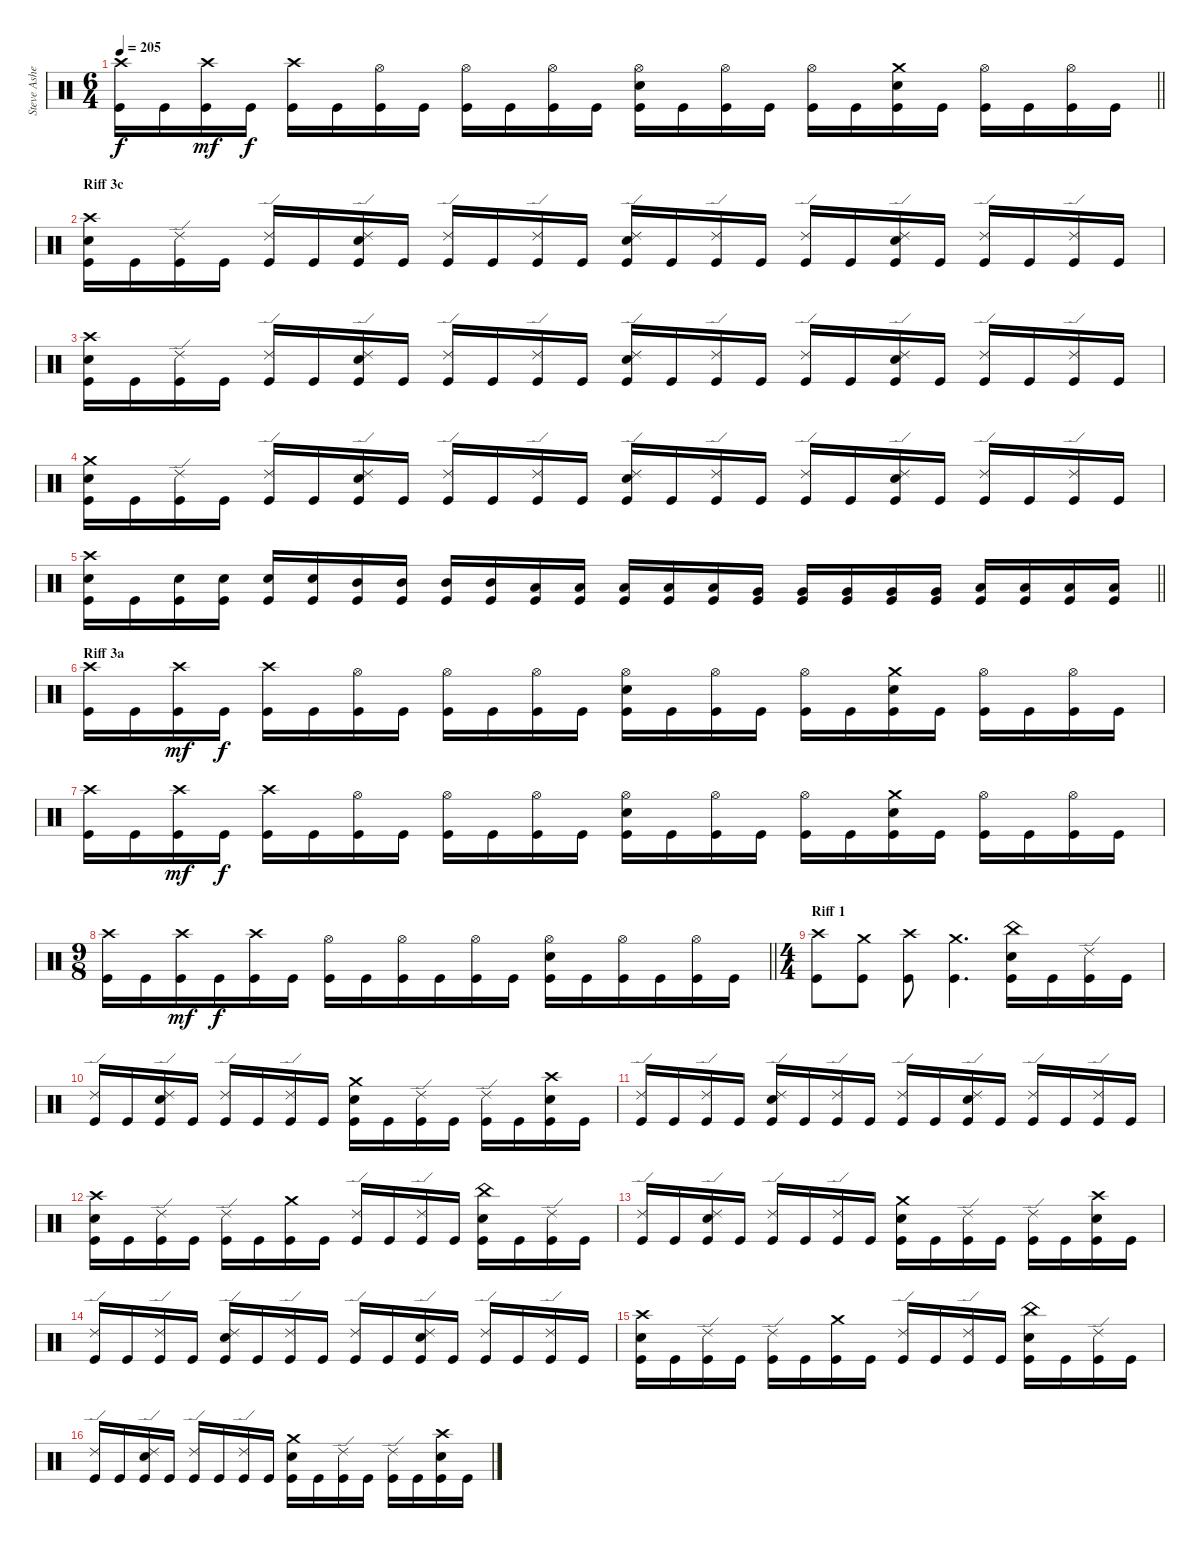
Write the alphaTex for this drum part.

\track ("Steve Asheim" "Steve Ashe") {instrument percussion}
\staff {score}
\articulation defaults
\ts (6 4)
\tempo 205
\clef neutral
\barLineRight lightlight
\ks c
("Crash high (hit)" "Kick (hit)").16{dy f} "Kick (hit)".16 ("Crash high (hit)" "Kick (hit)").16{dy mf} "Kick (hit)".16{dy f} ("Crash high (hit)" "Kick (hit)").16 "Kick (hit)".16 ("Hi-Hat (open)" "Kick (hit)").16 "Kick (hit)".16 ("Hi-Hat (open)" "Kick (hit)").16 "Kick (hit)".16 ("Hi-Hat (open)" "Kick (hit)").16 "Kick (hit)".16 ("Hi-Hat (open)" "Snare (hit) 2" "Kick (hit)").16 "Kick (hit)".16 ("Hi-Hat (open)" "Kick (hit)").16 "Kick (hit)".16 ("Hi-Hat (open)" "Kick (hit)").16 "Kick (hit)".16 ("Crash medium (hit)" "Snare (hit) 2" "Kick (hit)").16 "Kick (hit)".16 ("Hi-Hat (open)" "Kick (hit)").16 "Kick (hit)".16 ("Hi-Hat (open)" "Kick (hit)").16 "Kick (hit)".16 |
\section ("" "Riff 3c")
("Crash high (hit)" "Snare (hit) 2" "Kick (hit)").16 "Kick (hit)".16 ("Ride (edge) 2" "Kick (hit)").16 "Kick (hit)".16 ("Ride (edge) 2" "Kick (hit)").16 "Kick (hit)".16 ("Ride (edge) 2" "Snare (hit) 2" "Kick (hit)").16 "Kick (hit)".16 ("Ride (edge) 2" "Kick (hit)").16 "Kick (hit)".16 ("Ride (edge) 2" "Kick (hit)").16 "Kick (hit)".16 ("Ride (edge) 2" "Snare (hit) 2" "Kick (hit)").16 "Kick (hit)".16 ("Ride (edge) 2" "Kick (hit)").16 "Kick (hit)".16 ("Ride (edge) 2" "Kick (hit)").16 "Kick (hit)".16 ("Ride (edge) 2" "Snare (hit) 2" "Kick (hit)").16 "Kick (hit)".16 ("Ride (edge) 2" "Kick (hit)").16 "Kick (hit)".16 ("Ride (edge) 2" "Kick (hit)").16 "Kick (hit)".16 |
("Crash high (hit)" "Snare (hit) 2" "Kick (hit)").16 "Kick (hit)".16 ("Ride (edge) 2" "Kick (hit)").16 "Kick (hit)".16 ("Ride (edge) 2" "Kick (hit)").16 "Kick (hit)".16 ("Ride (edge) 2" "Snare (hit) 2" "Kick (hit)").16 "Kick (hit)".16 ("Ride (edge) 2" "Kick (hit)").16 "Kick (hit)".16 ("Ride (edge) 2" "Kick (hit)").16 "Kick (hit)".16 ("Ride (edge) 2" "Snare (hit) 2" "Kick (hit)").16 "Kick (hit)".16 ("Ride (edge) 2" "Kick (hit)").16 "Kick (hit)".16 ("Ride (edge) 2" "Kick (hit)").16 "Kick (hit)".16 ("Ride (edge) 2" "Snare (hit) 2" "Kick (hit)").16 "Kick (hit)".16 ("Ride (edge) 2" "Kick (hit)").16 "Kick (hit)".16 ("Ride (edge) 2" "Kick (hit)").16 "Kick (hit)".16 |
("Crash medium (hit)" "Snare (hit) 2" "Kick (hit)").16 "Kick (hit)".16 ("Ride (edge) 2" "Kick (hit)").16 "Kick (hit)".16 ("Ride (edge) 2" "Kick (hit)").16 "Kick (hit)".16 ("Ride (edge) 2" "Snare (hit) 2" "Kick (hit)").16 "Kick (hit)".16 ("Ride (edge) 2" "Kick (hit)").16 "Kick (hit)".16 ("Ride (edge) 2" "Kick (hit)").16 "Kick (hit)".16 ("Ride (edge) 2" "Snare (hit) 2" "Kick (hit)").16 "Kick (hit)".16 ("Ride (edge) 2" "Kick (hit)").16 "Kick (hit)".16 ("Ride (edge) 2" "Kick (hit)").16 "Kick (hit)".16 ("Ride (edge) 2" "Snare (hit) 2" "Kick (hit)").16 "Kick (hit)".16 ("Ride (edge) 2" "Kick (hit)").16 "Kick (hit)".16 ("Ride (edge) 2" "Kick (hit)").16 "Kick (hit)".16 |
\barLineRight lightlight
("Crash high (hit)" "Snare (hit) 2" "Kick (hit)").16 "Kick (hit)".16 ("Snare (hit) 2" "Kick (hit)").16 ("Snare (hit) 2" "Kick (hit)").16 ("Snare (hit) 2" "Kick (hit)").16 ("Snare (hit) 2" "Kick (hit)").16 ("Mid Tom (hit)" "Kick (hit)").16 ("Mid Tom (hit)" "Kick (hit)").16 ("Mid Tom (hit)" "Kick (hit)").16 ("Mid Tom (hit)" "Kick (hit)").16 ("Low Tom (hit)" "Kick (hit)").16 ("Low Tom (hit)" "Kick (hit)").16 ("Low Tom (hit)" "Kick (hit)").16 ("Low Tom (hit)" "Kick (hit)").16 ("Low Tom (hit)" "Kick (hit)").16 ("Very Low Tom (hit)" "Kick (hit)").16 ("Very Low Tom (hit)" "Kick (hit)").16 ("Very Low Tom (hit)" "Kick (hit)").16 ("Very Low Tom (hit)" "Kick (hit)").16 ("Very Low Tom (hit)" "Kick (hit)").16 ("Low Floor Tom (hit)" "Kick (hit)").16 ("Low Floor Tom (hit)" "Kick (hit)").16 ("Low Floor Tom (hit)" "Kick (hit)").16 ("Low Floor Tom (hit)" "Kick (hit)").16 |
\section ("" "Riff 3a")
("Crash high (hit)" "Kick (hit)").16 "Kick (hit)".16 ("Crash high (hit)" "Kick (hit)").16{dy mf} "Kick (hit)".16{dy f} ("Crash high (hit)" "Kick (hit)").16 "Kick (hit)".16 ("Hi-Hat (open)" "Kick (hit)").16 "Kick (hit)".16 ("Hi-Hat (open)" "Kick (hit)").16 "Kick (hit)".16 ("Hi-Hat (open)" "Kick (hit)").16 "Kick (hit)".16 ("Hi-Hat (open)" "Snare (hit) 2" "Kick (hit)").16 "Kick (hit)".16 ("Hi-Hat (open)" "Kick (hit)").16 "Kick (hit)".16 ("Hi-Hat (open)" "Kick (hit)").16 "Kick (hit)".16 ("Crash medium (hit)" "Snare (hit) 2" "Kick (hit)").16 "Kick (hit)".16 ("Hi-Hat (open)" "Kick (hit)").16 "Kick (hit)".16 ("Hi-Hat (open)" "Kick (hit)").16 "Kick (hit)".16 |
("Crash high (hit)" "Kick (hit)").16 "Kick (hit)".16 ("Crash high (hit)" "Kick (hit)").16{dy mf} "Kick (hit)".16{dy f} ("Crash high (hit)" "Kick (hit)").16 "Kick (hit)".16 ("Hi-Hat (open)" "Kick (hit)").16 "Kick (hit)".16 ("Hi-Hat (open)" "Kick (hit)").16 "Kick (hit)".16 ("Hi-Hat (open)" "Kick (hit)").16 "Kick (hit)".16 ("Hi-Hat (open)" "Snare (hit) 2" "Kick (hit)").16 "Kick (hit)".16 ("Hi-Hat (open)" "Kick (hit)").16 "Kick (hit)".16 ("Hi-Hat (open)" "Kick (hit)").16 "Kick (hit)".16 ("Crash medium (hit)" "Snare (hit) 2" "Kick (hit)").16 "Kick (hit)".16 ("Hi-Hat (open)" "Kick (hit)").16 "Kick (hit)".16 ("Hi-Hat (open)" "Kick (hit)").16 "Kick (hit)".16 |
\ts (9 8)
\barLineRight lightlight
("Crash high (hit)" "Kick (hit)").16 "Kick (hit)".16 ("Crash high (hit)" "Kick (hit)").16{dy mf} "Kick (hit)".16{dy f} ("Crash high (hit)" "Kick (hit)").16 "Kick (hit)".16 ("Hi-Hat (open)" "Kick (hit)").16 "Kick (hit)".16 ("Hi-Hat (open)" "Kick (hit)").16 "Kick (hit)".16 ("Hi-Hat (open)" "Kick (hit)").16 "Kick (hit)".16 ("Hi-Hat (open)" "Snare (hit) 2" "Kick (hit)").16 "Kick (hit)".16 ("Hi-Hat (open)" "Kick (hit)").16 "Kick (hit)".16 ("Hi-Hat (open)" "Kick (hit)").16 "Kick (hit)".16 |
\ts (4 4)
\section ("" "Riff 1")
("Crash high (hit)" "Kick (hit)").8 ("Crash medium (hit)" "Kick (hit)").8 ("Crash high (hit)" "Kick (hit)").8 ("Crash medium (hit)" "Kick (hit)").4{d} ("China (hit)" "Snare (hit) 2" "Kick (hit)").16 "Kick (hit)".16 ("Ride (edge) 2" "Kick (hit)").16 "Kick (hit)".16 |
("Ride (edge) 2" "Kick (hit)").16 "Kick (hit)".16 ("Ride (edge) 2" "Snare (hit) 2" "Kick (hit)").16 "Kick (hit)".16 ("Ride (edge) 2" "Kick (hit)").16 "Kick (hit)".16 ("Ride (edge) 2" "Kick (hit)").16 "Kick (hit)".16 ("Crash medium (hit)" "Snare (hit) 2" "Kick (hit)").16 "Kick (hit)".16 ("Ride (edge) 2" "Kick (hit)").16 "Kick (hit)".16 ("Ride (edge) 2" "Kick (hit)").16 "Kick (hit)".16 ("Crash high (hit)" "Snare (hit) 2" "Kick (hit)").16 "Kick (hit)".16 |
("Ride (edge) 2" "Kick (hit)").16 "Kick (hit)".16 ("Ride (edge) 2" "Kick (hit)").16 "Kick (hit)".16 ("Ride (edge) 2" "Snare (hit) 2" "Kick (hit)").16 "Kick (hit)".16 ("Ride (edge) 2" "Kick (hit)").16 "Kick (hit)".16 ("Ride (edge) 2" "Kick (hit)").16 "Kick (hit)".16 ("Ride (edge) 2" "Snare (hit) 2" "Kick (hit)").16 "Kick (hit)".16 ("Ride (edge) 2" "Kick (hit)").16 "Kick (hit)".16 ("Ride (edge) 2" "Kick (hit)").16 "Kick (hit)".16 |
("Crash high (hit)" "Snare (hit) 2" "Kick (hit)").16 "Kick (hit)".16 ("Ride (edge) 2" "Kick (hit)").16 "Kick (hit)".16 ("Ride (edge) 2" "Kick (hit)").16 "Kick (hit)".16 ("Crash medium (hit)" "Kick (hit)").16 "Kick (hit)".16 ("Ride (edge) 2" "Kick (hit)").16 "Kick (hit)".16 ("Ride (edge) 2" "Kick (hit)").16 "Kick (hit)".16 ("China (hit)" "Snare (hit) 2" "Kick (hit)").16 "Kick (hit)".16 ("Ride (edge) 2" "Kick (hit)").16 "Kick (hit)".16 |
("Ride (edge) 2" "Kick (hit)").16 "Kick (hit)".16 ("Ride (edge) 2" "Snare (hit) 2" "Kick (hit)").16 "Kick (hit)".16 ("Ride (edge) 2" "Kick (hit)").16 "Kick (hit)".16 ("Ride (edge) 2" "Kick (hit)").16 "Kick (hit)".16 ("Crash medium (hit)" "Snare (hit) 2" "Kick (hit)").16 "Kick (hit)".16 ("Ride (edge) 2" "Kick (hit)").16 "Kick (hit)".16 ("Ride (edge) 2" "Kick (hit)").16 "Kick (hit)".16 ("Crash high (hit)" "Snare (hit) 2" "Kick (hit)").16 "Kick (hit)".16 |
("Ride (edge) 2" "Kick (hit)").16 "Kick (hit)".16 ("Ride (edge) 2" "Kick (hit)").16 "Kick (hit)".16 ("Ride (edge) 2" "Snare (hit) 2" "Kick (hit)").16 "Kick (hit)".16 ("Ride (edge) 2" "Kick (hit)").16 "Kick (hit)".16 ("Ride (edge) 2" "Kick (hit)").16 "Kick (hit)".16 ("Ride (edge) 2" "Snare (hit) 2" "Kick (hit)").16 "Kick (hit)".16 ("Ride (edge) 2" "Kick (hit)").16 "Kick (hit)".16 ("Ride (edge) 2" "Kick (hit)").16 "Kick (hit)".16 |
("Crash high (hit)" "Snare (hit) 2" "Kick (hit)").16 "Kick (hit)".16 ("Ride (edge) 2" "Kick (hit)").16 "Kick (hit)".16 ("Ride (edge) 2" "Kick (hit)").16 "Kick (hit)".16 ("Crash medium (hit)" "Kick (hit)").16 "Kick (hit)".16 ("Ride (edge) 2" "Kick (hit)").16 "Kick (hit)".16 ("Ride (edge) 2" "Kick (hit)").16 "Kick (hit)".16 ("China (hit)" "Snare (hit) 2" "Kick (hit)").16 "Kick (hit)".16 ("Ride (edge) 2" "Kick (hit)").16 "Kick (hit)".16 |
("Ride (edge) 2" "Kick (hit)").16 "Kick (hit)".16 ("Ride (edge) 2" "Snare (hit) 2" "Kick (hit)").16 "Kick (hit)".16 ("Ride (edge) 2" "Kick (hit)").16 "Kick (hit)".16 ("Ride (edge) 2" "Kick (hit)").16 "Kick (hit)".16 ("Crash medium (hit)" "Snare (hit) 2" "Kick (hit)").16 "Kick (hit)".16 ("Ride (edge) 2" "Kick (hit)").16 "Kick (hit)".16 ("Ride (edge) 2" "Kick (hit)").16 "Kick (hit)".16 ("Crash high (hit)" "Snare (hit) 2" "Kick (hit)").16 "Kick (hit)".16
